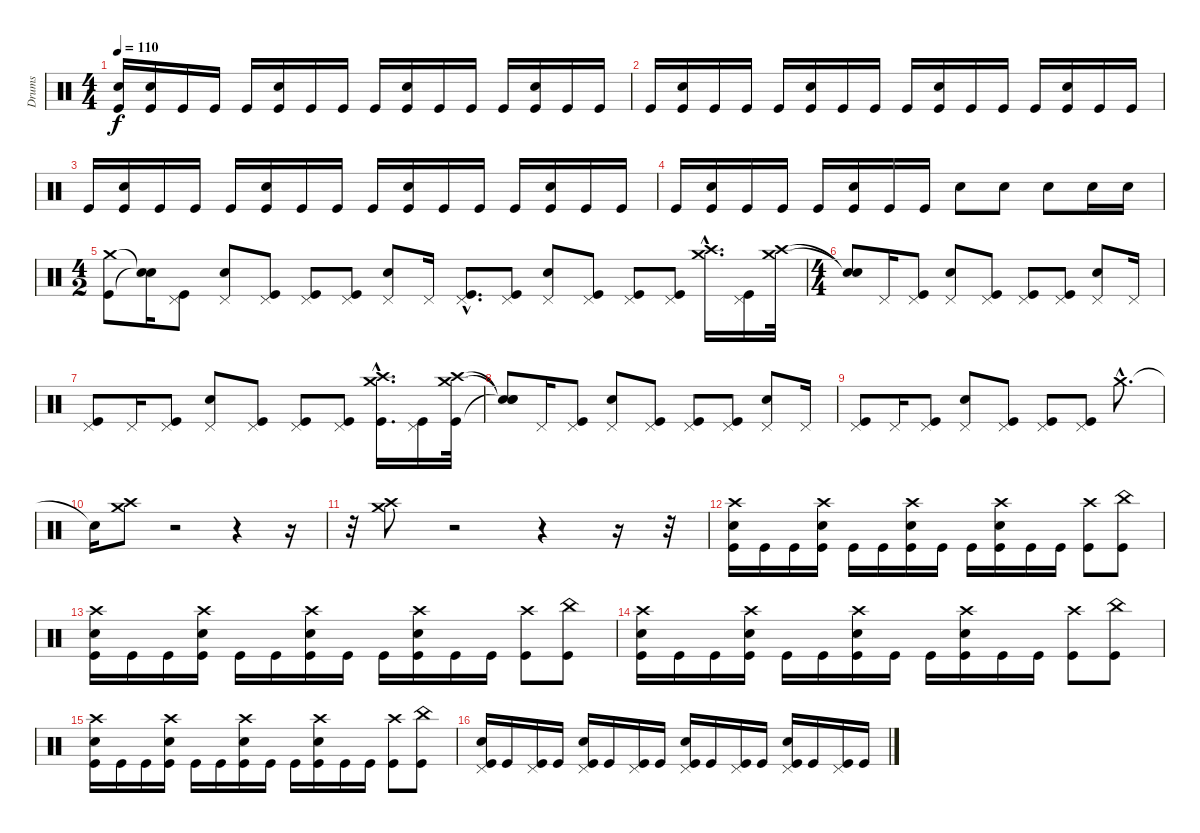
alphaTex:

\track ("Drums" "Drums") {instrument percussion}
\staff {score}
\articulation defaults
\ts (4 4)
\tempo 110
\clef neutral
\ks c
("Electric Snare (hit)" "Kick (hit)").16{dy f} ("Electric Snare (hit)" "Kick (hit)").16 "Kick (hit)".16 "Kick (hit)".16 "Kick (hit)".16 ("Electric Snare (hit)" "Kick (hit)").16 "Kick (hit)".16 "Kick (hit)".16 "Kick (hit)".16 ("Electric Snare (hit)" "Kick (hit)").16 "Kick (hit)".16 "Kick (hit)".16 "Kick (hit)".16 ("Electric Snare (hit)" "Kick (hit)").16 "Kick (hit)".16 "Kick (hit)".16 |
"Kick (hit)".16 ("Electric Snare (hit)" "Kick (hit)").16 "Kick (hit)".16 "Kick (hit)".16 "Kick (hit)".16 ("Electric Snare (hit)" "Kick (hit)").16 "Kick (hit)".16 "Kick (hit)".16 "Kick (hit)".16 ("Electric Snare (hit)" "Kick (hit)").16 "Kick (hit)".16 "Kick (hit)".16 "Kick (hit)".16 ("Electric Snare (hit)" "Kick (hit)").16 "Kick (hit)".16 "Kick (hit)".16 |
"Kick (hit)".16 ("Electric Snare (hit)" "Kick (hit)").16 "Kick (hit)".16 "Kick (hit)".16 "Kick (hit)".16 ("Electric Snare (hit)" "Kick (hit)").16 "Kick (hit)".16 "Kick (hit)".16 "Kick (hit)".16 ("Electric Snare (hit)" "Kick (hit)").16 "Kick (hit)".16 "Kick (hit)".16 "Kick (hit)".16 ("Electric Snare (hit)" "Kick (hit)").16 "Kick (hit)".16 "Kick (hit)".16 |
"Kick (hit)".16 ("Electric Snare (hit)" "Kick (hit)").16 "Kick (hit)".16 "Kick (hit)".16 "Kick (hit)".16 ("Electric Snare (hit)" "Kick (hit)").16 "Kick (hit)".16 "Kick (hit)".16 "Electric Snare (hit)".8 "Electric Snare (hit)".8 "Electric Snare (hit)".8 "Electric Snare (hit)".16 "Electric Snare (hit)".16 |
\ts (4 2)
("Crash medium (hit)" "Kick (hit)").8 ("Snare (hit)"{t} "Snare (hit)"{t}).16 ("Pedal Hi-Hat (hit)" "Kick (hit)").8 ("Pedal Hi-Hat (hit)" "Electric Snare (hit)").8 ("Pedal Hi-Hat (hit)" "Kick (hit)").8 ("Pedal Hi-Hat (hit)" "Kick (hit)").8 ("Pedal Hi-Hat (hit)" "Kick (hit)").8 ("Electric Snare (hit)" "Pedal Hi-Hat (hit)").8 "Pedal Hi-Hat (hit)".16 ("Pedal Hi-Hat (hit)"{hac} "Kick (hit)"{hac}).8{d} ("Pedal Hi-Hat (hit)" "Kick (hit)").8 ("Pedal Hi-Hat (hit)" "Electric Snare (hit)").8 ("Pedal Hi-Hat (hit)" "Kick (hit)").8 ("Pedal Hi-Hat (hit)" "Kick (hit)").8 ("Pedal Hi-Hat (hit)" "Kick (hit)").8 ("Crash medium (hit)"{hac} "Crash high (hit)"{hac}).16{d} ("Pedal Hi-Hat (hit)" "Kick (hit)").16 ("Crash high (hit)" "Crash medium (hit)").32 |
\ts (4 4)
("Snare (hit)"{t} "Snare (hit)"{t}).8 "Pedal Hi-Hat (hit)".16 ("Pedal Hi-Hat (hit)" "Kick (hit)").8 ("Pedal Hi-Hat (hit)" "Electric Snare (hit)").8 ("Pedal Hi-Hat (hit)" "Kick (hit)").8 ("Pedal Hi-Hat (hit)" "Kick (hit)").8 ("Pedal Hi-Hat (hit)" "Kick (hit)").8 ("Electric Snare (hit)" "Pedal Hi-Hat (hit)").8 "Pedal Hi-Hat (hit)".16 |
("Pedal Hi-Hat (hit)" "Kick (hit)").8 "Pedal Hi-Hat (hit)".16 ("Pedal Hi-Hat (hit)" "Kick (hit)").8 ("Pedal Hi-Hat (hit)" "Electric Snare (hit)").8 ("Pedal Hi-Hat (hit)" "Kick (hit)").8 ("Pedal Hi-Hat (hit)" "Kick (hit)").8 ("Pedal Hi-Hat (hit)" "Kick (hit)").8 ("Crash high (hit)"{hac} "Crash medium (hit)"{hac} "Kick (hit)"{hac}).16{d} ("Pedal Hi-Hat (hit)" "Kick (hit)").16 ("Crash medium (hit)" "Crash high (hit)" "Kick (hit)").32 |
("Snare (hit)"{t} "Snare (hit)"{t} "Snare (hit)"{t}).8 "Pedal Hi-Hat (hit)".16 ("Pedal Hi-Hat (hit)" "Kick (hit)").8 ("Pedal Hi-Hat (hit)" "Electric Snare (hit)").8 ("Pedal Hi-Hat (hit)" "Kick (hit)").8 ("Pedal Hi-Hat (hit)" "Kick (hit)").8 ("Pedal Hi-Hat (hit)" "Kick (hit)").8 ("Electric Snare (hit)" "Pedal Hi-Hat (hit)").8 "Pedal Hi-Hat (hit)".16 |
("Pedal Hi-Hat (hit)" "Kick (hit)").8 "Pedal Hi-Hat (hit)".16 ("Pedal Hi-Hat (hit)" "Kick (hit)").8 ("Pedal Hi-Hat (hit)" "Electric Snare (hit)").8 ("Pedal Hi-Hat (hit)" "Kick (hit)").8 ("Pedal Hi-Hat (hit)" "Kick (hit)").8 ("Pedal Hi-Hat (hit)" "Kick (hit)").8 "Crash medium (hit)"{hac}.8{d} |
"Snare (hit)"{t}.16 ("Crash high (hit)" "Crash medium (hit)").8 r.2 r.4 r.16 |
r.32 ("Crash high (hit)" "Crash medium (hit)").8 r.2 r.4 r.16 r.32 |
("Crash high (hit)" "Electric Snare (hit)" "Kick (hit)").16 "Kick (hit)".16 "Kick (hit)".16 ("Crash high (hit)" "Electric Snare (hit)" "Kick (hit)").16 "Kick (hit)".16 "Kick (hit)".16 ("Crash high (hit)" "Electric Snare (hit)" "Kick (hit)").16 "Kick (hit)".16 "Kick (hit)".16 ("Crash high (hit)" "Electric Snare (hit)" "Kick (hit)").16 "Kick (hit)".16 "Kick (hit)".16 ("Crash high (hit)" "Kick (hit)").8 ("China (hit)" "Kick (hit)").8 |
("Crash high (hit)" "Electric Snare (hit)" "Kick (hit)").16 "Kick (hit)".16 "Kick (hit)".16 ("Crash high (hit)" "Electric Snare (hit)" "Kick (hit)").16 "Kick (hit)".16 "Kick (hit)".16 ("Crash high (hit)" "Electric Snare (hit)" "Kick (hit)").16 "Kick (hit)".16 "Kick (hit)".16 ("Crash high (hit)" "Electric Snare (hit)" "Kick (hit)").16 "Kick (hit)".16 "Kick (hit)".16 ("Crash high (hit)" "Kick (hit)").8 ("China (hit)" "Kick (hit)").8 |
("Crash high (hit)" "Electric Snare (hit)" "Kick (hit)").16 "Kick (hit)".16 "Kick (hit)".16 ("Crash high (hit)" "Electric Snare (hit)" "Kick (hit)").16 "Kick (hit)".16 "Kick (hit)".16 ("Crash high (hit)" "Electric Snare (hit)" "Kick (hit)").16 "Kick (hit)".16 "Kick (hit)".16 ("Crash high (hit)" "Electric Snare (hit)" "Kick (hit)").16 "Kick (hit)".16 "Kick (hit)".16 ("Crash high (hit)" "Kick (hit)").8 ("China (hit)" "Kick (hit)").8 |
("Crash high (hit)" "Electric Snare (hit)" "Kick (hit)").16 "Kick (hit)".16 "Kick (hit)".16 ("Crash high (hit)" "Electric Snare (hit)" "Kick (hit)").16 "Kick (hit)".16 "Kick (hit)".16 ("Crash high (hit)" "Electric Snare (hit)" "Kick (hit)").16 "Kick (hit)".16 "Kick (hit)".16 ("Crash high (hit)" "Electric Snare (hit)" "Kick (hit)").16 "Kick (hit)".16 "Kick (hit)".16 ("Crash high (hit)" "Kick (hit)").8 ("China (hit)" "Kick (hit)").8 |
("Pedal Hi-Hat (hit)" "Electric Snare (hit)" "Kick (hit)").16 "Kick (hit)".16 ("Pedal Hi-Hat (hit)" "Kick (hit)").16 "Kick (hit)".16 ("Pedal Hi-Hat (hit)" "Electric Snare (hit)" "Kick (hit)").16 "Kick (hit)".16 ("Pedal Hi-Hat (hit)" "Kick (hit)").16 "Kick (hit)".16 ("Pedal Hi-Hat (hit)" "Electric Snare (hit)" "Kick (hit)").16 "Kick (hit)".16 ("Pedal Hi-Hat (hit)" "Kick (hit)").16 "Kick (hit)".16 ("Pedal Hi-Hat (hit)" "Electric Snare (hit)" "Kick (hit)").16 "Kick (hit)".16 ("Pedal Hi-Hat (hit)" "Kick (hit)").16 "Kick (hit)".16
